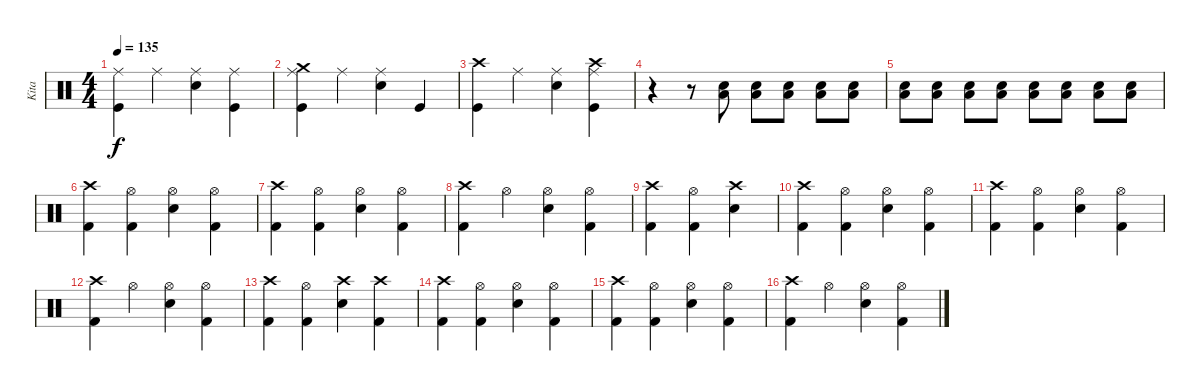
\track ("Kita" "Kita") {instrument percussion}
\staff {score}
\articulation defaults
\ts (4 4)
\tempo 135
\clef neutral
\ks c
("Kick (hit)" "Ride (middle)").4{dy f} "Ride (middle)".4 ("Ride (middle)" "Snare (hit) 2").4 ("Kick (hit)" "Ride (middle)").4 |
("Ride (middle)" "Kick (hit)" "Crash medium (hit)").4 "Ride (middle)".4 ("Ride (middle)" "Snare (hit) 2").4 "Kick (hit)".4 |
("Kick (hit)" "Crash high (hit)").4 "Ride (middle)".4 ("Snare (hit) 2" "Ride (middle)").4 ("Ride (middle)" "Kick (hit)" "Crash high (hit)").4 |
r.4 r.8 ("Snare (hit) 2" "Low Tom (hit)").8 ("Snare (hit) 2" "Low Tom (hit)").8 ("Snare (hit) 2" "Low Tom (hit)").8 ("Snare (hit) 2" "Low Tom (hit)").8 ("Snare (hit) 2" "Low Tom (hit)").8 |
("Snare (hit) 2" "Low Tom (hit)").8 ("Snare (hit) 2" "Low Tom (hit)").8 ("Snare (hit) 2" "Low Tom (hit)").8 ("Snare (hit) 2" "Low Tom (hit)").8 ("Snare (hit) 2" "Low Tom (hit)").8 ("Snare (hit) 2" "Low Tom (hit)").8 ("Snare (hit) 2" "Low Tom (hit)").8 ("Snare (hit) 2" "Low Tom (hit)").8 |
("Kick (hit) 2" "Crash high (hit)").4 ("Kick (hit) 2" "Hi-Hat (open)").4 ("Snare (hit) 2" "Hi-Hat (open)").4 ("Kick (hit) 2" "Hi-Hat (open)").4 |
("Kick (hit) 2" "Crash high (hit)").4 ("Kick (hit) 2" "Hi-Hat (open)").4 ("Snare (hit) 2" "Hi-Hat (open)").4 ("Kick (hit) 2" "Hi-Hat (open)").4 |
("Kick (hit) 2" "Crash high (hit)").4 "Hi-Hat (open)".4 ("Snare (hit) 2" "Hi-Hat (open)").4 ("Kick (hit) 2" "Hi-Hat (open)").4 |
("Kick (hit) 2" "Crash high (hit)").4 ("Kick (hit) 2" "Hi-Hat (open)").4 ("Crash high (hit)" "Snare (hit) 2").4 |
("Kick (hit) 2" "Crash high (hit)").4 ("Kick (hit) 2" "Hi-Hat (open)").4 ("Snare (hit) 2" "Hi-Hat (open)").4 ("Kick (hit) 2" "Hi-Hat (open)").4 |
("Kick (hit) 2" "Crash high (hit)").4 ("Kick (hit) 2" "Hi-Hat (open)").4 ("Snare (hit) 2" "Hi-Hat (open)").4 ("Kick (hit) 2" "Hi-Hat (open)").4 |
("Kick (hit) 2" "Crash high (hit)").4 "Hi-Hat (open)".4 ("Snare (hit) 2" "Hi-Hat (open)").4 ("Kick (hit) 2" "Hi-Hat (open)").4 |
("Kick (hit) 2" "Crash high (hit)").4 ("Kick (hit) 2" "Hi-Hat (open)").4 ("Crash high (hit)" "Snare (hit) 2").4 ("Crash high (hit)" "Kick (hit) 2").4 |
("Kick (hit) 2" "Crash high (hit)").4 ("Kick (hit) 2" "Hi-Hat (open)").4 ("Snare (hit) 2" "Hi-Hat (open)").4 ("Kick (hit) 2" "Hi-Hat (open)").4 |
("Kick (hit) 2" "Crash high (hit)").4 ("Kick (hit) 2" "Hi-Hat (open)").4 ("Snare (hit) 2" "Hi-Hat (open)").4 ("Kick (hit) 2" "Hi-Hat (open)").4 |
("Kick (hit) 2" "Crash high (hit)").4 "Hi-Hat (open)".4 ("Snare (hit) 2" "Hi-Hat (open)").4 ("Kick (hit) 2" "Hi-Hat (open)").4
